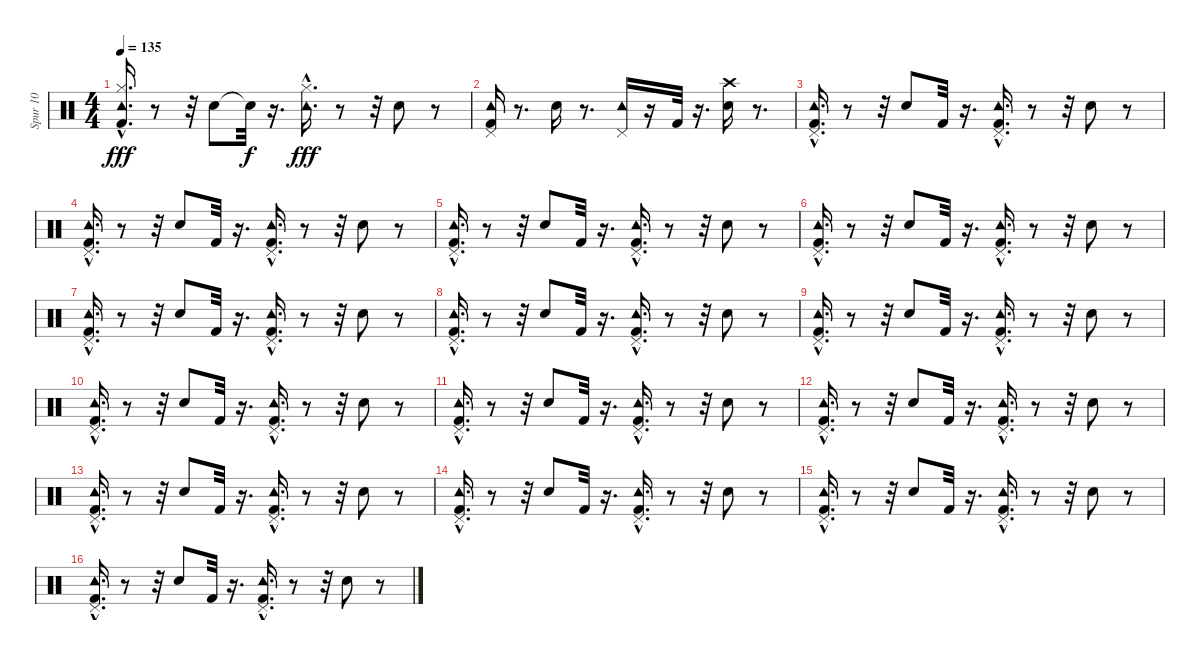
\track ("Spur 10" "Spur 10") {instrument percussion}
\staff {score}
\articulation defaults
\ts (4 4)
\tempo 135
\clef neutral
\ks c
("Kick (hit) 2"{hac} "Hi-Hat (closed)"{hac} "Tambourine (hit)"{hac}).16{d dy fff} r.8 r.32 "Electric Snare (hit)".8 "Snare (hit)"{t}.32{dy f} r.16{d} ("Hi-Hat (closed)"{hac} "Tambourine (hit)"{hac}).16{d dy fff} r.8 r.32 "Electric Snare (hit)".8 r.8 |
("Pedal Hi-Hat (hit)" "Tambourine (hit)" "Kick (hit) 2").16 r.8{d} "Electric Snare (hit)".16 r.8{d} ("Tambourine (hit)" "Pedal Hi-Hat (hit)").16 r.16 "Kick (hit) 2".32 r.16{d} ("Crash high (hit)" "Electric Snare (hit)").16 r.8{d} |
("Pedal Hi-Hat (hit)" "Tambourine (hit)" "Kick (hit) 2"{hac}).16{d} r.8 r.32 "Electric Snare (hit)".8 "Kick (hit) 2".32 r.16{d} ("Pedal Hi-Hat (hit)" "Kick (hit) 2"{hac} "Tambourine (hit)").16{d} r.8 r.32 "Electric Snare (hit)".8 r.8 |
("Tambourine (hit)" "Pedal Hi-Hat (hit)" "Kick (hit) 2"{hac}).16{d} r.8 r.32 "Electric Snare (hit)".8 "Kick (hit) 2".32 r.16{d} ("Tambourine (hit)" "Kick (hit) 2"{hac} "Pedal Hi-Hat (hit)").16{d} r.8 r.32 "Electric Snare (hit)".8 r.8 |
("Kick (hit) 2"{hac} "Pedal Hi-Hat (hit)" "Tambourine (hit)").16{d} r.8 r.32 "Electric Snare (hit)".8 "Kick (hit) 2".32 r.16{d} ("Kick (hit) 2"{hac} "Tambourine (hit)" "Pedal Hi-Hat (hit)").16{d} r.8 r.32 "Electric Snare (hit)".8 r.8 |
("Tambourine (hit)" "Kick (hit) 2"{hac} "Pedal Hi-Hat (hit)").16{d} r.8 r.32 "Electric Snare (hit)".8 "Kick (hit) 2".32 r.16{d} ("Kick (hit) 2"{hac} "Tambourine (hit)" "Pedal Hi-Hat (hit)").16{d} r.8 r.32 "Electric Snare (hit)".8 r.8 |
("Kick (hit) 2"{hac} "Pedal Hi-Hat (hit)" "Tambourine (hit)").16{d} r.8 r.32 "Electric Snare (hit)".8 "Kick (hit) 2".32 r.16{d} ("Tambourine (hit)" "Kick (hit) 2"{hac} "Pedal Hi-Hat (hit)").16{d} r.8 r.32 "Electric Snare (hit)".8 r.8 |
("Kick (hit) 2"{hac} "Pedal Hi-Hat (hit)" "Tambourine (hit)").16{d} r.8 r.32 "Electric Snare (hit)".8 "Kick (hit) 2".32 r.16{d} ("Pedal Hi-Hat (hit)" "Tambourine (hit)" "Kick (hit) 2"{hac}).16{d} r.8 r.32 "Electric Snare (hit)".8 r.8 |
("Kick (hit) 2"{hac} "Tambourine (hit)" "Pedal Hi-Hat (hit)").16{d} r.8 r.32 "Electric Snare (hit)".8 "Kick (hit) 2".32 r.16{d} ("Tambourine (hit)" "Kick (hit) 2"{hac} "Pedal Hi-Hat (hit)").16{d} r.8 r.32 "Electric Snare (hit)".8 r.8 |
("Pedal Hi-Hat (hit)" "Kick (hit) 2"{hac} "Tambourine (hit)").16{d} r.8 r.32 "Electric Snare (hit)".8 "Kick (hit) 2".32 r.16{d} ("Tambourine (hit)" "Kick (hit) 2"{hac} "Pedal Hi-Hat (hit)").16{d} r.8 r.32 "Electric Snare (hit)".8 r.8 |
("Pedal Hi-Hat (hit)" "Kick (hit) 2"{hac} "Tambourine (hit)").16{d} r.8 r.32 "Electric Snare (hit)".8 "Kick (hit) 2".32 r.16{d} ("Pedal Hi-Hat (hit)" "Tambourine (hit)" "Kick (hit) 2"{hac}).16{d} r.8 r.32 "Electric Snare (hit)".8 r.8 |
("Kick (hit) 2"{hac} "Tambourine (hit)" "Pedal Hi-Hat (hit)").16{d} r.8 r.32 "Electric Snare (hit)".8 "Kick (hit) 2".32 r.16{d} ("Tambourine (hit)" "Pedal Hi-Hat (hit)" "Kick (hit) 2"{hac}).16{d} r.8 r.32 "Electric Snare (hit)".8 r.8 |
("Pedal Hi-Hat (hit)" "Kick (hit) 2"{hac} "Tambourine (hit)").16{d} r.8 r.32 "Electric Snare (hit)".8 "Kick (hit) 2".32 r.16{d} ("Tambourine (hit)" "Kick (hit) 2"{hac} "Pedal Hi-Hat (hit)").16{d} r.8 r.32 "Electric Snare (hit)".8 r.8 |
("Kick (hit) 2"{hac} "Pedal Hi-Hat (hit)" "Tambourine (hit)").16{d} r.8 r.32 "Electric Snare (hit)".8 "Kick (hit) 2".32 r.16{d} ("Kick (hit) 2"{hac} "Pedal Hi-Hat (hit)" "Tambourine (hit)").16{d} r.8 r.32 "Electric Snare (hit)".8 r.8 |
("Tambourine (hit)" "Kick (hit) 2"{hac} "Pedal Hi-Hat (hit)").16{d} r.8 r.32 "Electric Snare (hit)".8 "Kick (hit) 2".32 r.16{d} ("Tambourine (hit)" "Pedal Hi-Hat (hit)" "Kick (hit) 2"{hac}).16{d} r.8 r.32 "Electric Snare (hit)".8 r.8 |
("Tambourine (hit)" "Pedal Hi-Hat (hit)" "Kick (hit) 2"{hac}).16{d} r.8 r.32 "Electric Snare (hit)".8 "Kick (hit) 2".32 r.16{d} ("Tambourine (hit)" "Pedal Hi-Hat (hit)" "Kick (hit) 2"{hac}).16{d} r.8 r.32 "Electric Snare (hit)".8 r.8
